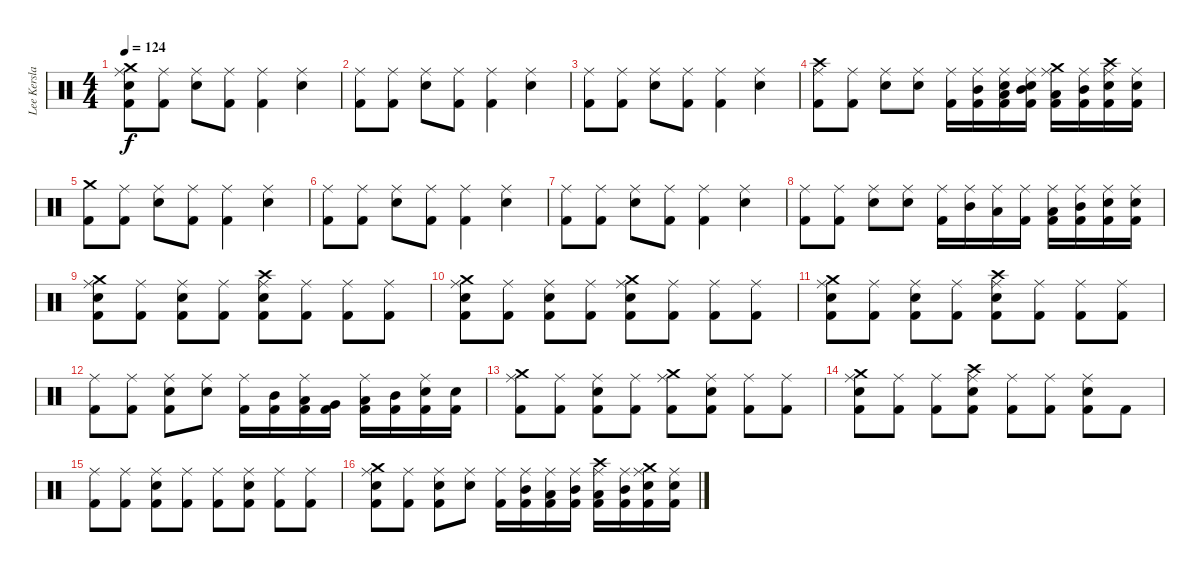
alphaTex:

\track ("Lee Kerslake" "Lee Kersla") {instrument percussion}
\staff {score}
\articulation defaults
\ts (4 4)
\tempo 124
\clef neutral
\ks c
("Kick (hit) 2" "Electric Snare (hit)" "Crash medium (hit)" "Ride (middle)").8{dy f} ("Kick (hit) 2" "Ride (middle)").8 ("Electric Snare (hit)" "Ride (middle)").8 ("Kick (hit) 2" "Ride (middle)").8 ("Kick (hit) 2" "Ride (middle)").4 ("Electric Snare (hit)" "Ride (middle)").4 |
("Kick (hit) 2" "Ride (middle)").8 ("Kick (hit) 2" "Ride (middle)").8 ("Electric Snare (hit)" "Ride (middle)").8 ("Kick (hit) 2" "Ride (middle)").8 ("Kick (hit) 2" "Ride (middle)").4 ("Electric Snare (hit)" "Ride (middle)").4 |
("Kick (hit) 2" "Ride (middle)").8 ("Kick (hit) 2" "Ride (middle)").8 ("Electric Snare (hit)" "Ride (middle)").8 ("Kick (hit) 2" "Ride (middle)").8 ("Kick (hit) 2" "Ride (middle)").4 ("Electric Snare (hit)" "Ride (middle)").4 |
("Kick (hit) 2" "Crash high (hit)" "Ride (middle)").8 ("Kick (hit) 2" "Ride (middle)").8 ("Electric Snare (hit)" "Ride (middle)").8 ("Electric Snare (hit)" "Ride (middle)").8 ("Kick (hit) 2" "Ride (middle)").16 ("Kick (hit) 2" "Mid Tom (hit)" "Ride (middle)").16 ("Low Tom (hit)" "Kick (hit) 2" "Electric Snare (hit)" "Ride (middle)").16 ("Kick (hit) 2" "Mid Tom (hit)" "Electric Snare (hit)" "Ride (middle)").16 ("Kick (hit) 2" "Low Tom (hit)" "Crash medium (hit)" "Ride (middle)").16 ("Kick (hit) 2" "Mid Tom (hit)" "Ride (middle)").16 ("Kick (hit) 2" "Electric Snare (hit)" "Crash high (hit)" "Ride (middle)").16 ("Kick (hit) 2" "Electric Snare (hit)" "Ride (middle)").16 |
("Kick (hit) 2" "Crash medium (hit)").8 ("Kick (hit) 2" "Ride (middle)").8 ("Electric Snare (hit)" "Ride (middle)").8 ("Kick (hit) 2" "Ride (middle)").8 ("Kick (hit) 2" "Ride (middle)").4 ("Electric Snare (hit)" "Ride (middle)").4 |
("Kick (hit) 2" "Ride (middle)").8 ("Kick (hit) 2" "Ride (middle)").8 ("Electric Snare (hit)" "Ride (middle)").8 ("Kick (hit) 2" "Ride (middle)").8 ("Kick (hit) 2" "Ride (middle)").4 ("Electric Snare (hit)" "Ride (middle)").4 |
("Kick (hit) 2" "Ride (middle)").8 ("Kick (hit) 2" "Ride (middle)").8 ("Electric Snare (hit)" "Ride (middle)").8 ("Kick (hit) 2" "Ride (middle)").8 ("Kick (hit) 2" "Ride (middle)").4 ("Electric Snare (hit)" "Ride (middle)").4 |
("Kick (hit) 2" "Ride (middle)").8 ("Kick (hit) 2" "Ride (middle)").8 ("Electric Snare (hit)" "Ride (middle)").8 ("Electric Snare (hit)" "Ride (middle)").8 ("Kick (hit) 2" "Ride (middle)").16 ("Mid Tom (hit)" "Ride (middle)").16 ("Low Tom (hit)" "Ride (middle)").16 ("Kick (hit) 2" "Ride (middle)").16 ("Kick (hit) 2" "Low Tom (hit)" "Ride (middle)").16 ("Kick (hit) 2" "Mid Tom (hit)" "Ride (middle)").16 ("Kick (hit) 2" "Electric Snare (hit)" "Ride (middle)").16 ("Kick (hit) 2" "Electric Snare (hit)" "Ride (middle)").16 |
("Kick (hit) 2" "Electric Snare (hit)" "Crash medium (hit)" "Ride (middle)").8 ("Kick (hit) 2" "Ride (middle)").8 ("Kick (hit) 2" "Electric Snare (hit)" "Ride (middle)").8 ("Kick (hit) 2" "Ride (middle)").8 ("Kick (hit) 2" "Electric Snare (hit)" "Crash high (hit)" "Ride (middle)").8 ("Kick (hit) 2" "Ride (middle)").8 ("Kick (hit) 2" "Ride (middle)").8 ("Kick (hit) 2" "Ride (middle)").8 |
("Kick (hit) 2" "Electric Snare (hit)" "Crash medium (hit)" "Ride (middle)").8 ("Kick (hit) 2" "Ride (middle)").8 ("Kick (hit) 2" "Electric Snare (hit)" "Ride (middle)").8 ("Kick (hit) 2" "Ride (middle)").8 ("Kick (hit) 2" "Electric Snare (hit)" "Crash medium (hit)" "Ride (middle)").8 ("Kick (hit) 2" "Ride (middle)").8 ("Kick (hit) 2" "Ride (middle)").8 ("Kick (hit) 2" "Ride (middle)").8 |
("Kick (hit) 2" "Electric Snare (hit)" "Crash medium (hit)" "Ride (middle)").8 ("Kick (hit) 2" "Ride (middle)").8 ("Kick (hit) 2" "Electric Snare (hit)" "Ride (middle)").8 ("Kick (hit) 2" "Ride (middle)").8 ("Kick (hit) 2" "Electric Snare (hit)" "Crash high (hit)" "Ride (middle)").8 ("Kick (hit) 2" "Ride (middle)").8 ("Kick (hit) 2" "Ride (middle)").8 ("Kick (hit) 2" "Ride (middle)").8 |
("Kick (hit) 2" "Ride (middle)").8 ("Kick (hit) 2" "Ride (middle)").8 ("Kick (hit) 2" "Electric Snare (hit)" "Ride (middle)").8 ("Electric Snare (hit)" "Ride (middle)").8 ("Kick (hit) 2" "Ride (middle)").16 ("Kick (hit) 2" "Mid Tom (hit)").16 ("Low Tom (hit)" "Kick (hit) 2" "Ride (middle)").16 ("Kick (hit) 2" "Very Low Tom (hit)").16 ("Kick (hit) 2" "Low Tom (hit)" "Ride (middle)").16 ("Kick (hit) 2" "Mid Tom (hit)").16 ("Kick (hit) 2" "Electric Snare (hit)" "Ride (middle)").16 ("Kick (hit) 2" "Electric Snare (hit)").16 |
("Kick (hit) 2" "Crash medium (hit)" "Ride (middle)").8 ("Kick (hit) 2" "Ride (middle)").8 ("Kick (hit) 2" "Electric Snare (hit)" "Ride (middle)").8 ("Kick (hit) 2" "Ride (middle)").8 ("Kick (hit) 2" "Crash medium (hit)" "Ride (middle)").8 ("Kick (hit) 2" "Electric Snare (hit)" "Ride (middle)").8 ("Kick (hit) 2" "Ride (middle)").8 ("Kick (hit) 2" "Ride (middle)").8 |
("Kick (hit) 2" "Electric Snare (hit)" "Crash medium (hit)" "Ride (middle)").8 ("Kick (hit) 2" "Ride (middle)").8 ("Kick (hit) 2" "Ride (middle)").8 ("Kick (hit) 2" "Electric Snare (hit)" "Crash high (hit)" "Ride (middle)").8 ("Kick (hit) 2" "Ride (middle)").8 ("Kick (hit) 2" "Ride (middle)").8 ("Kick (hit) 2" "Electric Snare (hit)" "Ride (middle)").8 "Kick (hit) 2".8 |
("Kick (hit) 2" "Ride (middle)").8 ("Kick (hit) 2" "Ride (middle)").8 ("Kick (hit) 2" "Electric Snare (hit)" "Ride (middle)").8 ("Kick (hit) 2" "Ride (middle)").8 ("Kick (hit) 2" "Ride (middle)").8 ("Kick (hit) 2" "Electric Snare (hit)" "Ride (middle)").8 ("Kick (hit) 2" "Ride (middle)").8 ("Kick (hit) 2" "Ride (middle)").8 |
("Kick (hit) 2" "Electric Snare (hit)" "Crash medium (hit)" "Ride (middle)").8 ("Kick (hit) 2" "Ride (middle)").8 ("Kick (hit) 2" "Electric Snare (hit)" "Ride (middle)").8 ("Electric Snare (hit)" "Ride (middle)").8 ("Kick (hit) 2" "Ride (middle)").16 ("Kick (hit) 2" "Mid Tom (hit)" "Ride (middle)").16 ("Low Tom (hit)" "Kick (hit) 2" "Ride (middle)").16 ("Kick (hit) 2" "Mid Tom (hit)" "Ride (middle)").16 ("Kick (hit) 2" "Low Tom (hit)" "Crash high (hit)" "Ride (middle)").16 ("Kick (hit) 2" "Mid Tom (hit)" "Ride (middle)").16 ("Kick (hit) 2" "Electric Snare (hit)" "Crash medium (hit)" "Ride (middle)").16 ("Kick (hit) 2" "Electric Snare (hit)" "Ride (middle)").16
